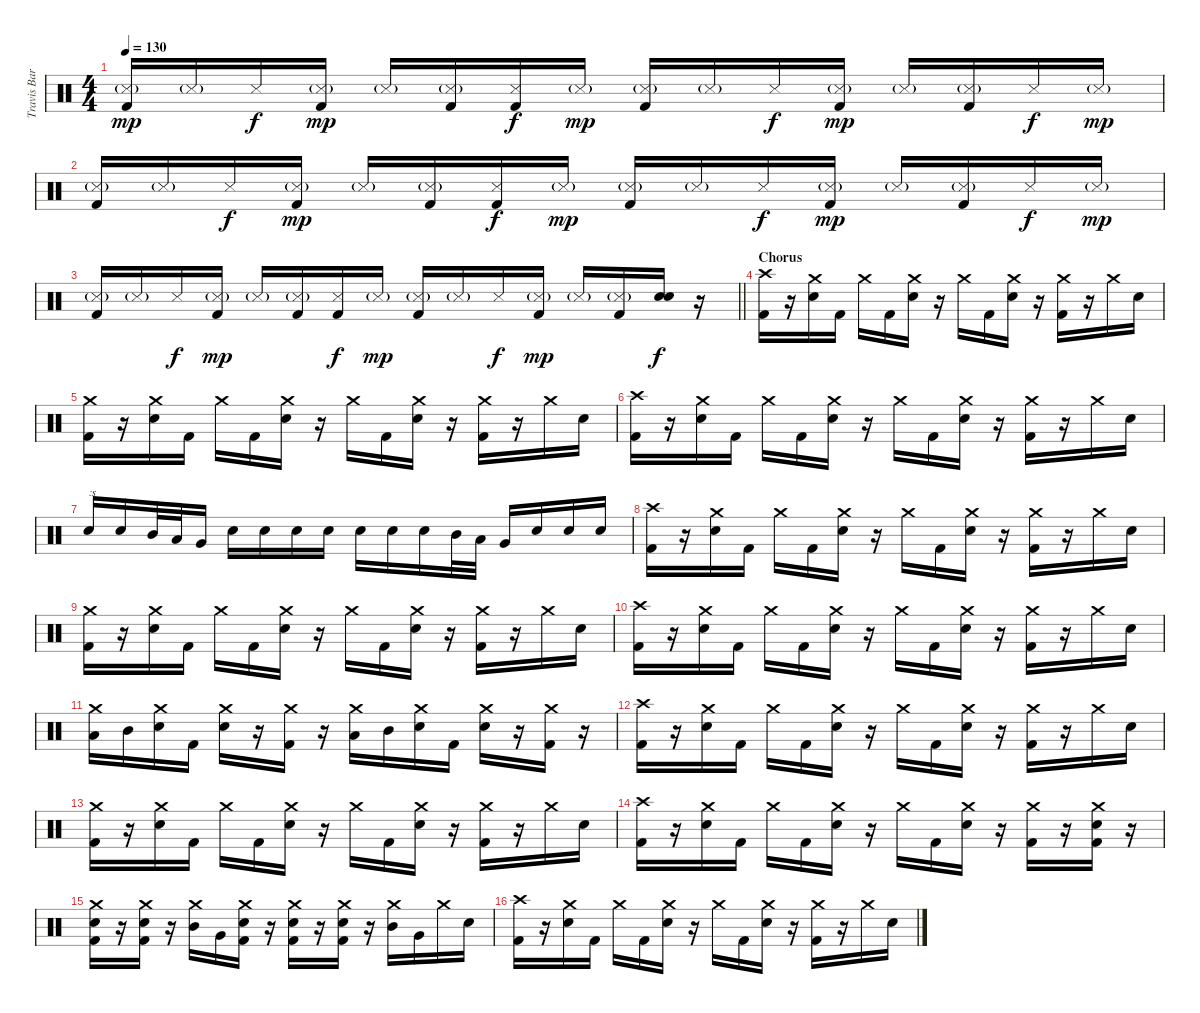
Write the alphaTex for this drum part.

\track ("Travis Barker [Drums]" "Travis Bar") {instrument percussion}
\staff {score}
\articulation defaults
\ts (4 4)
\tempo 130
\clef neutral
\ks c
("Snare (side stick) 3"{g} "Kick (hit) 2").16{dy mp} "Snare (side stick) 3"{g}.16 "Snare (side stick) 3".16{dy f} ("Snare (side stick) 3"{g} "Kick (hit) 2").16{dy mp} "Snare (side stick) 3"{g}.16 ("Snare (side stick) 3"{g} "Kick (hit) 2").16 ("Snare (side stick) 3" "Kick (hit) 2").16{dy f} "Snare (side stick) 3"{g}.16{dy mp} ("Snare (side stick) 3"{g} "Kick (hit) 2").16 "Snare (side stick) 3"{g}.16 "Snare (side stick) 3".16{dy f} ("Snare (side stick) 3"{g} "Kick (hit) 2").16{dy mp} "Snare (side stick) 3"{g}.16 ("Snare (side stick) 3"{g} "Kick (hit) 2").16 "Snare (side stick) 3".16{dy f} "Snare (side stick) 3"{g}.16{dy mp} |
("Snare (side stick) 3"{g} "Kick (hit) 2").16 "Snare (side stick) 3"{g}.16 "Snare (side stick) 3".16{dy f} ("Snare (side stick) 3"{g} "Kick (hit) 2").16{dy mp} "Snare (side stick) 3"{g}.16 ("Snare (side stick) 3"{g} "Kick (hit) 2").16 ("Snare (side stick) 3" "Kick (hit) 2").16{dy f} "Snare (side stick) 3"{g}.16{dy mp} ("Snare (side stick) 3"{g} "Kick (hit) 2").16 "Snare (side stick) 3"{g}.16 "Snare (side stick) 3".16{dy f} ("Snare (side stick) 3"{g} "Kick (hit) 2").16{dy mp} "Snare (side stick) 3"{g}.16 ("Snare (side stick) 3"{g} "Kick (hit) 2").16 "Snare (side stick) 3".16{dy f} "Snare (side stick) 3"{g}.16{dy mp} |
\barLineRight lightlight
("Snare (side stick) 3"{g} "Kick (hit) 2").16 "Snare (side stick) 3"{g}.16 "Snare (side stick) 3".16{dy f} ("Snare (side stick) 3"{g} "Kick (hit) 2").16{dy mp} "Snare (side stick) 3"{g}.16 ("Snare (side stick) 3"{g} "Kick (hit) 2").16 ("Snare (side stick) 3" "Kick (hit) 2").16{dy f} "Snare (side stick) 3"{g}.16{dy mp} ("Snare (side stick) 3"{g} "Kick (hit) 2").16 "Snare (side stick) 3"{g}.16 "Snare (side stick) 3".16{dy f} ("Snare (side stick) 3"{g} "Kick (hit) 2").16{dy mp} "Snare (side stick) 3"{g}.16 ("Snare (side stick) 3"{g} "Kick (hit) 2").16 ("Electric Snare (hit)" "Electric Snare (hit)").16{dy f} r.16 |
\section ("" "Chorus")
("Crash high (hit)" "Kick (hit) 2").16 r.16 ("Crash medium (hit)" "Electric Snare (hit)").16 "Kick (hit) 2".16 "Crash medium (hit)".16 "Kick (hit) 2".16 ("Crash medium (hit)" "Electric Snare (hit)").16 r.16 "Crash medium (hit)".16 "Kick (hit) 2".16 ("Crash medium (hit)" "Electric Snare (hit)").16 r.16 ("Crash medium (hit)" "Kick (hit) 2").16 r.16 "Crash medium (hit)".16 "Electric Snare (hit)".16 |
("Crash medium (hit)" "Kick (hit) 2").16 r.16 ("Crash medium (hit)" "Electric Snare (hit)").16 "Kick (hit) 2".16 "Crash medium (hit)".16 "Kick (hit) 2".16 ("Crash medium (hit)" "Electric Snare (hit)").16 r.16 "Crash medium (hit)".16 "Kick (hit) 2".16 ("Crash medium (hit)" "Electric Snare (hit)").16 r.16 ("Crash medium (hit)" "Kick (hit) 2").16 r.16 "Crash medium (hit)".16 "Electric Snare (hit)".16 |
("Crash high (hit)" "Kick (hit) 2").16 r.16 ("Crash medium (hit)" "Electric Snare (hit)").16 "Kick (hit) 2".16 "Crash medium (hit)".16 "Kick (hit) 2".16 ("Crash medium (hit)" "Electric Snare (hit)").16 r.16 "Crash medium (hit)".16 "Kick (hit) 2".16 ("Crash medium (hit)" "Electric Snare (hit)").16 r.16 ("Crash medium (hit)" "Kick (hit) 2").16 r.16 "Crash medium (hit)".16 "Electric Snare (hit)".16 |
"Electric Snare (hit)".16{txt ":s"} "Electric Snare (hit)".16 "Mid Tom (hit)".32 "Low Tom (hit)".32 "Very Low Tom (hit)".16 "Electric Snare (hit)".16 "Electric Snare (hit)".16 "Electric Snare (hit)".16 "Electric Snare (hit)".16 "Electric Snare (hit)".16 "Electric Snare (hit)".16 "Electric Snare (hit)".16 "Mid Tom (hit)".32 "Low Tom (hit)".32 "Very Low Tom (hit)".16 "Electric Snare (hit)".16 "Electric Snare (hit)".16 "Electric Snare (hit)".16 |
("Crash high (hit)" "Kick (hit) 2").16 r.16 ("Crash medium (hit)" "Electric Snare (hit)").16 "Kick (hit) 2".16 "Crash medium (hit)".16 "Kick (hit) 2".16 ("Crash medium (hit)" "Electric Snare (hit)").16 r.16 "Crash medium (hit)".16 "Kick (hit) 2".16 ("Crash medium (hit)" "Electric Snare (hit)").16 r.16 ("Crash medium (hit)" "Kick (hit) 2").16 r.16 "Crash medium (hit)".16 "Electric Snare (hit)".16 |
("Crash medium (hit)" "Kick (hit) 2").16 r.16 ("Crash medium (hit)" "Electric Snare (hit)").16 "Kick (hit) 2".16 "Crash medium (hit)".16 "Kick (hit) 2".16 ("Crash medium (hit)" "Electric Snare (hit)").16 r.16 "Crash medium (hit)".16 "Kick (hit) 2".16 ("Crash medium (hit)" "Electric Snare (hit)").16 r.16 ("Crash medium (hit)" "Kick (hit) 2").16 r.16 "Crash medium (hit)".16 "Electric Snare (hit)".16 |
("Crash high (hit)" "Kick (hit) 2").16 r.16 ("Crash medium (hit)" "Electric Snare (hit)").16 "Kick (hit) 2".16 "Crash medium (hit)".16 "Kick (hit) 2".16 ("Crash medium (hit)" "Electric Snare (hit)").16 r.16 "Crash medium (hit)".16 "Kick (hit) 2".16 ("Crash medium (hit)" "Electric Snare (hit)").16 r.16 ("Crash medium (hit)" "Kick (hit) 2").16 r.16 "Crash medium (hit)".16 "Electric Snare (hit)".16 |
("Crash medium (hit)" "Low Tom (hit)").16 "Mid Tom (hit)".16 ("Crash medium (hit)" "Electric Snare (hit)").16 "Kick (hit) 2".16 ("Crash medium (hit)" "Electric Snare (hit)").16 r.16 ("Crash medium (hit)" "Kick (hit) 2").16 r.16 ("Crash medium (hit)" "Low Tom (hit)").16 "Mid Tom (hit)".16 ("Crash medium (hit)" "Electric Snare (hit)").16 "Kick (hit) 2".16 ("Crash medium (hit)" "Electric Snare (hit)").16 r.16 ("Crash medium (hit)" "Kick (hit) 2").16 r.16 |
("Crash high (hit)" "Kick (hit) 2").16 r.16 ("Crash medium (hit)" "Electric Snare (hit)").16 "Kick (hit) 2".16 "Crash medium (hit)".16 "Kick (hit) 2".16 ("Crash medium (hit)" "Electric Snare (hit)").16 r.16 "Crash medium (hit)".16 "Kick (hit) 2".16 ("Crash medium (hit)" "Electric Snare (hit)").16 r.16 ("Crash medium (hit)" "Kick (hit) 2").16 r.16 "Crash medium (hit)".16 "Electric Snare (hit)".16 |
("Crash medium (hit)" "Kick (hit) 2").16 r.16 ("Crash medium (hit)" "Electric Snare (hit)").16 "Kick (hit) 2".16 "Crash medium (hit)".16 "Kick (hit) 2".16 ("Crash medium (hit)" "Electric Snare (hit)").16 r.16 "Crash medium (hit)".16 "Kick (hit) 2".16 ("Crash medium (hit)" "Electric Snare (hit)").16 r.16 ("Crash medium (hit)" "Kick (hit) 2").16 r.16 "Crash medium (hit)".16 "Electric Snare (hit)".16 |
("Crash high (hit)" "Kick (hit) 2").16 r.16 ("Crash medium (hit)" "Electric Snare (hit)").16 "Kick (hit) 2".16 "Crash medium (hit)".16 "Kick (hit) 2".16 ("Crash medium (hit)" "Electric Snare (hit)").16 r.16 "Crash medium (hit)".16 "Kick (hit) 2".16 ("Crash medium (hit)" "Electric Snare (hit)").16 r.16 ("Crash medium (hit)" "Kick (hit) 2").16 r.16 ("Crash medium (hit)" "Electric Snare (hit)" "Kick (hit) 2").16 r.16 |
("Crash medium (hit)" "Electric Snare (hit)" "Kick (hit) 2").16 r.16 ("Crash medium (hit)" "Electric Snare (hit)" "Kick (hit) 2").16 r.16 ("Crash medium (hit)" "Mid Tom (hit)").16 "Very Low Tom (hit)".16 ("Crash medium (hit)" "Electric Snare (hit)" "Kick (hit) 2").16 r.16 ("Crash medium (hit)" "Electric Snare (hit)" "Kick (hit) 2").16 r.16 ("Crash medium (hit)" "Electric Snare (hit)" "Kick (hit) 2").16 r.16 ("Crash medium (hit)" "Mid Tom (hit)").16 "Very Low Tom (hit)".16 "Crash medium (hit)".16 "Electric Snare (hit)".16 |
("Crash high (hit)" "Kick (hit) 2").16 r.16 ("Crash medium (hit)" "Electric Snare (hit)").16 "Kick (hit) 2".16 "Crash medium (hit)".16 "Kick (hit) 2".16 ("Crash medium (hit)" "Electric Snare (hit)").16 r.16 "Crash medium (hit)".16 "Kick (hit) 2".16 ("Crash medium (hit)" "Electric Snare (hit)").16 r.16 ("Crash medium (hit)" "Kick (hit) 2").16 r.16 "Crash medium (hit)".16 "Electric Snare (hit)".16
